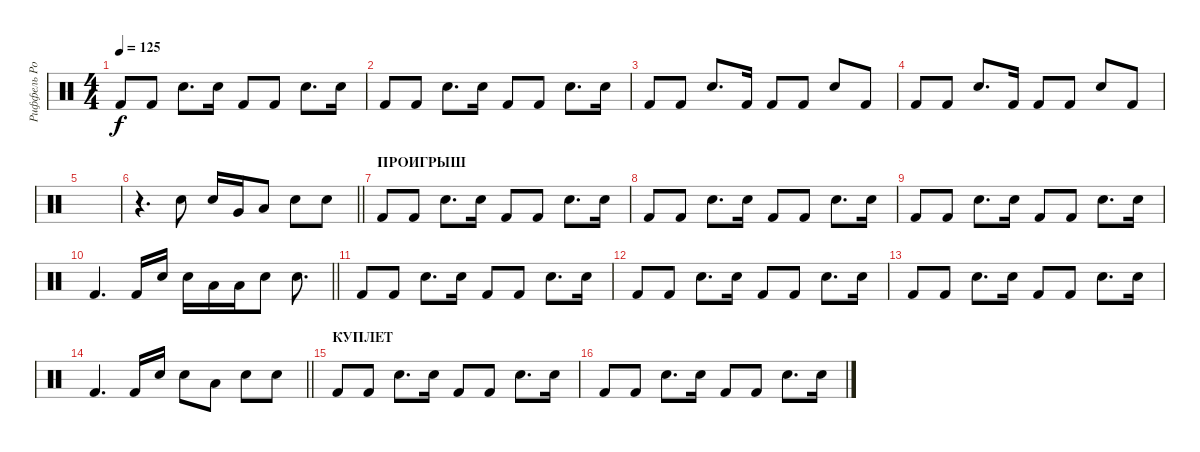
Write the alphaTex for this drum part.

\track ("Риффель Роман(главные)" "Риффель Ро") {instrument percussion}
\staff {score}
\articulation defaults
\ts (4 4)
\tempo 125
\clef neutral
\ks c "Kick (hit) 2".8{dy f} "Kick (hit) 2".8 "Electric Snare (hit)".8{d} "Electric Snare (hit)".16 "Kick (hit) 2".8 "Kick (hit) 2".8 "Electric Snare (hit)".8{d} "Electric Snare (hit)".16
|
"Kick (hit) 2".8 "Kick (hit) 2".8 "Electric Snare (hit)".8{d} "Electric Snare (hit)".16 "Kick (hit) 2".8 "Kick (hit) 2".8 "Electric Snare (hit)".8{d} "Electric Snare (hit)".16 |
"Kick (hit) 2".8 "Kick (hit) 2".8 "Electric Snare (hit)".8{d} "Kick (hit) 2".16 "Kick (hit) 2".8 "Kick (hit) 2".8 "Electric Snare (hit)".8 "Kick (hit) 2".8 |
"Kick (hit) 2".8 "Kick (hit) 2".8 "Electric Snare (hit)".8{d} "Kick (hit) 2".16 "Kick (hit) 2".8 "Kick (hit) 2".8 "Electric Snare (hit)".8 "Kick (hit) 2".8 |
|
\barLineRight lightlight
r.4{d} "Electric Snare (hit)".8 "Electric Snare (hit)".16 "Very Low Tom (hit)".16 "Low Floor Tom (hit)".8 "Electric Snare (hit)".8 "Electric Snare (hit)".8 |
\section ("" "ПРОИГРЫШ")
"Kick (hit) 2".8 "Kick (hit) 2".8 "Electric Snare (hit)".8{d} "Electric Snare (hit)".16 "Kick (hit) 2".8 "Kick (hit) 2".8 "Electric Snare (hit)".8{d} "Electric Snare (hit)".16 |
"Kick (hit) 2".8 "Kick (hit) 2".8 "Electric Snare (hit)".8{d} "Electric Snare (hit)".16 "Kick (hit) 2".8 "Kick (hit) 2".8 "Electric Snare (hit)".8{d} "Electric Snare (hit)".16 |
"Kick (hit) 2".8 "Kick (hit) 2".8 "Electric Snare (hit)".8{d} "Electric Snare (hit)".16 "Kick (hit) 2".8 "Kick (hit) 2".8 "Electric Snare (hit)".8{d} "Electric Snare (hit)".16 |
\barLineRight lightlight "Kick (hit) 2".4{d} "Kick (hit) 2".16 "Electric Snare (hit)".16 "Electric Snare (hit)".16 "Low Tom (hit)".16 "Low Tom (hit)".16 "Electric Snare (hit)".8 "Electric Snare (hit)".8{d}
|
"Kick (hit) 2".8 "Kick (hit) 2".8 "Electric Snare (hit)".8{d} "Electric Snare (hit)".16 "Kick (hit) 2".8 "Kick (hit) 2".8 "Electric Snare (hit)".8{d} "Electric Snare (hit)".16 |
"Kick (hit) 2".8 "Kick (hit) 2".8 "Electric Snare (hit)".8{d} "Electric Snare (hit)".16 "Kick (hit) 2".8 "Kick (hit) 2".8 "Electric Snare (hit)".8{d} "Electric Snare (hit)".16 |
"Kick (hit) 2".8 "Kick (hit) 2".8 "Electric Snare (hit)".8{d} "Electric Snare (hit)".16 "Kick (hit) 2".8 "Kick (hit) 2".8 "Electric Snare (hit)".8{d} "Electric Snare (hit)".16 |
\barLineRight lightlight "Kick (hit) 2".4{d} "Kick (hit) 2".16 "Electric Snare (hit)".16 "Electric Snare (hit)".8 "Low Tom (hit)".8 "Electric Snare (hit)".8 "Electric Snare (hit)".8
|
\section ("" "КУПЛЕТ")
"Kick (hit) 2".8 "Kick (hit) 2".8 "Electric Snare (hit)".8{d} "Electric Snare (hit)".16 "Kick (hit) 2".8 "Kick (hit) 2".8 "Electric Snare (hit)".8{d} "Electric Snare (hit)".16 |
"Kick (hit) 2".8 "Kick (hit) 2".8 "Electric Snare (hit)".8{d} "Electric Snare (hit)".16 "Kick (hit) 2".8 "Kick (hit) 2".8 "Electric Snare (hit)".8{d} "Electric Snare (hit)".16
